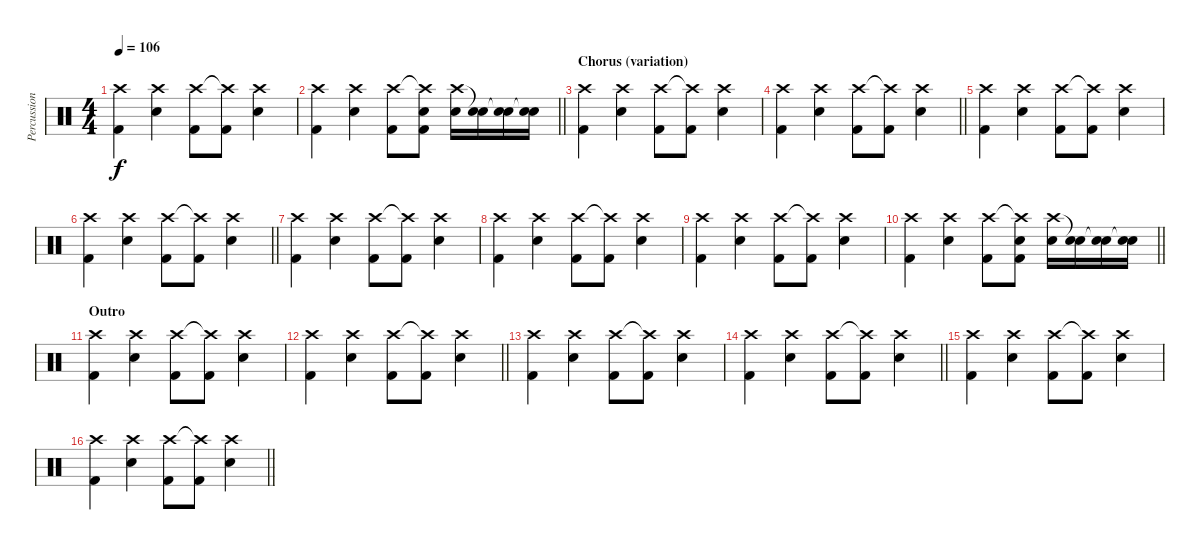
\track ("Percussion" "Percussion") {instrument percussion}
\staff {score}
\articulation defaults
\ts (4 4)
\tempo 106
\clef neutral
\ks c
("Crash high (hit)" "Kick (hit) 2").4{dy f} ("Crash high (hit)" "Electric Snare (hit)").4 ("Crash high (hit)" "Kick (hit) 2").8 ("Crash high (hit)"{t} "Kick (hit) 2").8 ("Crash high (hit)" "Electric Snare (hit)").4 |
\barLineRight lightlight
("Crash high (hit)" "Kick (hit) 2").4 ("Crash high (hit)" "Electric Snare (hit)").4 ("Crash high (hit)" "Kick (hit) 2").8 ("Crash high (hit)"{t} "Electric Snare (hit)" "Kick (hit) 2").8 ("Crash high (hit)" "Electric Snare (hit)").16 ("Snare (hit)"{t} "Electric Snare (hit)").16 ("Snare (hit)"{t} "Electric Snare (hit)").16 ("Snare (hit)"{t} "Electric Snare (hit)").16 |
\section ("" "Chorus (variation)")
("Crash high (hit)" "Kick (hit) 2").4 ("Crash high (hit)" "Electric Snare (hit)").4 ("Crash high (hit)" "Kick (hit) 2").8 ("Crash high (hit)"{t} "Kick (hit) 2").8 ("Crash high (hit)" "Electric Snare (hit)").4 |
\barLineRight lightlight
("Crash high (hit)" "Kick (hit) 2").4 ("Crash high (hit)" "Electric Snare (hit)").4 ("Crash high (hit)" "Kick (hit) 2").8 ("Crash high (hit)"{t} "Kick (hit) 2").8 ("Crash high (hit)" "Electric Snare (hit)").4 |
("Crash high (hit)" "Kick (hit) 2").4 ("Crash high (hit)" "Electric Snare (hit)").4 ("Crash high (hit)" "Kick (hit) 2").8 ("Crash high (hit)"{t} "Kick (hit) 2").8 ("Crash high (hit)" "Electric Snare (hit)").4 |
\barLineRight lightlight
("Crash high (hit)" "Kick (hit) 2").4 ("Crash high (hit)" "Electric Snare (hit)").4 ("Crash high (hit)" "Kick (hit) 2").8 ("Crash high (hit)"{t} "Kick (hit) 2").8 ("Crash high (hit)" "Electric Snare (hit)").4 |
("Crash high (hit)" "Kick (hit) 2").4 ("Crash high (hit)" "Electric Snare (hit)").4 ("Crash high (hit)" "Kick (hit) 2").8 ("Crash high (hit)"{t} "Kick (hit) 2").8 ("Crash high (hit)" "Electric Snare (hit)").4 |
("Crash high (hit)" "Kick (hit) 2").4 ("Crash high (hit)" "Electric Snare (hit)").4 ("Crash high (hit)" "Kick (hit) 2").8 ("Crash high (hit)"{t} "Kick (hit) 2").8 ("Crash high (hit)" "Electric Snare (hit)").4 |
("Crash high (hit)" "Kick (hit) 2").4 ("Crash high (hit)" "Electric Snare (hit)").4 ("Crash high (hit)" "Kick (hit) 2").8 ("Crash high (hit)"{t} "Kick (hit) 2").8 ("Crash high (hit)" "Electric Snare (hit)").4 |
\barLineRight lightlight
("Crash high (hit)" "Kick (hit) 2").4 ("Crash high (hit)" "Electric Snare (hit)").4 ("Crash high (hit)" "Kick (hit) 2").8 ("Crash high (hit)"{t} "Electric Snare (hit)" "Kick (hit) 2").8 ("Crash high (hit)" "Electric Snare (hit)").16 ("Snare (hit)"{t} "Electric Snare (hit)").16 ("Snare (hit)"{t} "Electric Snare (hit)").16 ("Snare (hit)"{t} "Electric Snare (hit)").16 |
\section ("" "Outro")
("Crash high (hit)" "Kick (hit) 2").4 ("Crash high (hit)" "Electric Snare (hit)").4 ("Crash high (hit)" "Kick (hit) 2").8 ("Crash high (hit)"{t} "Kick (hit) 2").8 ("Crash high (hit)" "Electric Snare (hit)").4 |
\barLineRight lightlight
("Crash high (hit)" "Kick (hit) 2").4 ("Crash high (hit)" "Electric Snare (hit)").4 ("Crash high (hit)" "Kick (hit) 2").8 ("Crash high (hit)"{t} "Kick (hit) 2").8 ("Crash high (hit)" "Electric Snare (hit)").4 |
("Crash high (hit)" "Kick (hit) 2").4 ("Crash high (hit)" "Electric Snare (hit)").4 ("Crash high (hit)" "Kick (hit) 2").8 ("Crash high (hit)"{t} "Kick (hit) 2").8 ("Crash high (hit)" "Electric Snare (hit)").4 |
\barLineRight lightlight
("Crash high (hit)" "Kick (hit) 2").4 ("Crash high (hit)" "Electric Snare (hit)").4 ("Crash high (hit)" "Kick (hit) 2").8 ("Crash high (hit)"{t} "Kick (hit) 2").8 ("Crash high (hit)" "Electric Snare (hit)").4 |
("Crash high (hit)" "Kick (hit) 2").4 ("Crash high (hit)" "Electric Snare (hit)").4 ("Crash high (hit)" "Kick (hit) 2").8 ("Crash high (hit)"{t} "Kick (hit) 2").8 ("Crash high (hit)" "Electric Snare (hit)").4 |
\barLineRight lightlight
("Crash high (hit)" "Kick (hit) 2").4 ("Crash high (hit)" "Electric Snare (hit)").4 ("Crash high (hit)" "Kick (hit) 2").8 ("Crash high (hit)"{t} "Kick (hit) 2").8 ("Crash high (hit)" "Electric Snare (hit)").4
